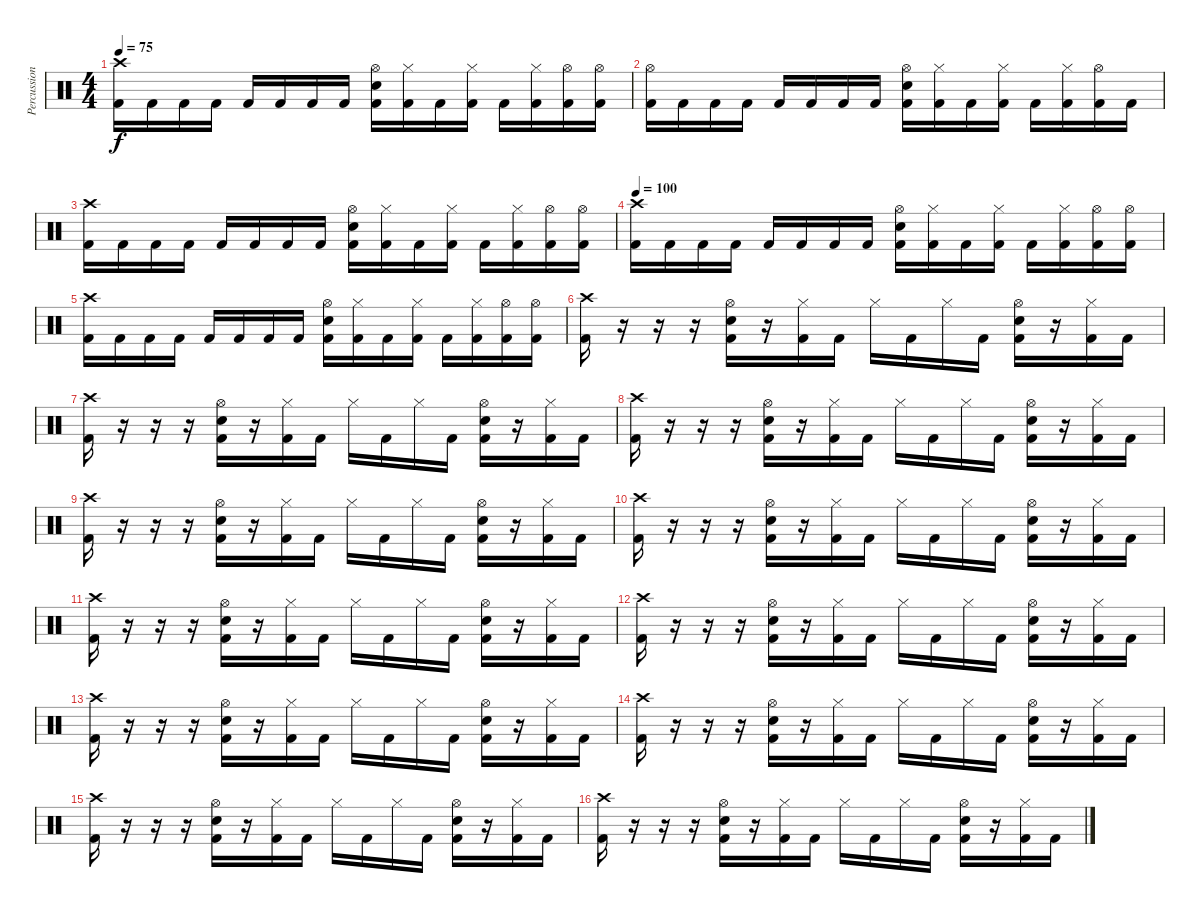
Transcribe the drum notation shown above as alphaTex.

\track ("Percussions" "Percussion") {instrument percussion}
\staff {score}
\articulation defaults
\ts (4 4)
\tempo 75
\clef neutral
\ks c
("Crash high (hit)" "Kick (hit) 2").16{dy f} "Kick (hit) 2".16 "Kick (hit) 2".16 "Kick (hit) 2".16 "Kick (hit) 2".16 "Kick (hit) 2".16 "Kick (hit) 2".16 "Kick (hit) 2".16 ("Hi-Hat (open)" "Kick (hit) 2" "Snare (hit) 2").16 ("Hi-Hat (closed)" "Kick (hit) 2").16 "Kick (hit) 2".16 ("Hi-Hat (closed)" "Kick (hit) 2").16 "Kick (hit) 2".16 ("Hi-Hat (closed)" "Kick (hit) 2").16 ("Hi-Hat (open)" "Kick (hit) 2").16 ("Hi-Hat (open)" "Kick (hit) 2").16 |
("Hi-Hat (open)" "Kick (hit) 2").16 "Kick (hit) 2".16 "Kick (hit) 2".16 "Kick (hit) 2".16 "Kick (hit) 2".16 "Kick (hit) 2".16 "Kick (hit) 2".16 "Kick (hit) 2".16 ("Hi-Hat (open)" "Kick (hit) 2" "Snare (hit) 2").16 ("Hi-Hat (closed)" "Kick (hit) 2").16 "Kick (hit) 2".16 ("Hi-Hat (closed)" "Kick (hit) 2").16 "Kick (hit) 2".16 ("Hi-Hat (closed)" "Kick (hit) 2").16 ("Hi-Hat (open)" "Kick (hit) 2").16 "Kick (hit) 2".16 |
("Crash high (hit)" "Kick (hit) 2").16 "Kick (hit) 2".16 "Kick (hit) 2".16 "Kick (hit) 2".16 "Kick (hit) 2".16 "Kick (hit) 2".16 "Kick (hit) 2".16 "Kick (hit) 2".16 ("Hi-Hat (open)" "Kick (hit) 2" "Snare (hit) 2").16 ("Hi-Hat (closed)" "Kick (hit) 2").16 "Kick (hit) 2".16 ("Hi-Hat (closed)" "Kick (hit) 2").16 "Kick (hit) 2".16 ("Hi-Hat (closed)" "Kick (hit) 2").16 ("Hi-Hat (open)" "Kick (hit) 2").16 ("Hi-Hat (open)" "Kick (hit) 2").16 |
\tempo 100
("Crash high (hit)" "Kick (hit) 2").16 "Kick (hit) 2".16 "Kick (hit) 2".16 "Kick (hit) 2".16 "Kick (hit) 2".16 "Kick (hit) 2".16 "Kick (hit) 2".16 "Kick (hit) 2".16 ("Hi-Hat (open)" "Kick (hit) 2" "Snare (hit) 2").16 ("Hi-Hat (closed)" "Kick (hit) 2").16 "Kick (hit) 2".16 ("Hi-Hat (closed)" "Kick (hit) 2").16 "Kick (hit) 2".16 ("Hi-Hat (closed)" "Kick (hit) 2").16 ("Hi-Hat (open)" "Kick (hit) 2").16 ("Hi-Hat (open)" "Kick (hit) 2").16 |
("Crash high (hit)" "Kick (hit) 2").16 "Kick (hit) 2".16 "Kick (hit) 2".16 "Kick (hit) 2".16 "Kick (hit) 2".16 "Kick (hit) 2".16 "Kick (hit) 2".16 "Kick (hit) 2".16 ("Hi-Hat (open)" "Kick (hit) 2" "Snare (hit) 2").16 ("Hi-Hat (closed)" "Kick (hit) 2").16 "Kick (hit) 2".16 ("Hi-Hat (closed)" "Kick (hit) 2").16 "Kick (hit) 2".16 ("Hi-Hat (closed)" "Kick (hit) 2").16 ("Hi-Hat (open)" "Kick (hit) 2").16 ("Hi-Hat (open)" "Kick (hit) 2").16 |
("Crash high (hit)" "Kick (hit) 2").16 r.16 r.16 r.16 ("Hi-Hat (open)" "Kick (hit) 2" "Snare (hit) 2").16 r.16 ("Hi-Hat (closed)" "Kick (hit) 2").16 "Kick (hit) 2".16 "Hi-Hat (closed)".16 "Kick (hit) 2".16 "Hi-Hat (closed)".16 "Kick (hit) 2".16 ("Hi-Hat (open)" "Kick (hit) 2" "Snare (hit) 2").16 r.16 ("Hi-Hat (closed)" "Kick (hit) 2").16 "Kick (hit) 2".16 |
("Crash high (hit)" "Kick (hit) 2").16 r.16 r.16 r.16 ("Hi-Hat (open)" "Kick (hit) 2" "Snare (hit) 2").16 r.16 ("Hi-Hat (closed)" "Kick (hit) 2").16 "Kick (hit) 2".16 "Hi-Hat (closed)".16 "Kick (hit) 2".16 "Hi-Hat (closed)".16 "Kick (hit) 2".16 ("Hi-Hat (open)" "Kick (hit) 2" "Snare (hit) 2").16 r.16 ("Hi-Hat (closed)" "Kick (hit) 2").16 "Kick (hit) 2".16 |
("Crash high (hit)" "Kick (hit) 2").16 r.16 r.16 r.16 ("Hi-Hat (open)" "Kick (hit) 2" "Snare (hit) 2").16 r.16 ("Hi-Hat (closed)" "Kick (hit) 2").16 "Kick (hit) 2".16 "Hi-Hat (closed)".16 "Kick (hit) 2".16 "Hi-Hat (closed)".16 "Kick (hit) 2".16 ("Hi-Hat (open)" "Kick (hit) 2" "Snare (hit) 2").16 r.16 ("Hi-Hat (closed)" "Kick (hit) 2").16 "Kick (hit) 2".16 |
("Crash high (hit)" "Kick (hit) 2").16 r.16 r.16 r.16 ("Hi-Hat (open)" "Kick (hit) 2" "Snare (hit) 2").16 r.16 ("Hi-Hat (closed)" "Kick (hit) 2").16 "Kick (hit) 2".16 "Hi-Hat (closed)".16 "Kick (hit) 2".16 "Hi-Hat (closed)".16 "Kick (hit) 2".16 ("Hi-Hat (open)" "Kick (hit) 2" "Snare (hit) 2").16 r.16 ("Hi-Hat (closed)" "Kick (hit) 2").16 "Kick (hit) 2".16 |
("Crash high (hit)" "Kick (hit) 2").16 r.16 r.16 r.16 ("Hi-Hat (open)" "Kick (hit) 2" "Snare (hit) 2").16 r.16 ("Hi-Hat (closed)" "Kick (hit) 2").16 "Kick (hit) 2".16 "Hi-Hat (closed)".16 "Kick (hit) 2".16 "Hi-Hat (closed)".16 "Kick (hit) 2".16 ("Hi-Hat (open)" "Kick (hit) 2" "Snare (hit) 2").16 r.16 ("Hi-Hat (closed)" "Kick (hit) 2").16 "Kick (hit) 2".16 |
("Crash high (hit)" "Kick (hit) 2").16 r.16 r.16 r.16 ("Hi-Hat (open)" "Kick (hit) 2" "Snare (hit) 2").16 r.16 ("Hi-Hat (closed)" "Kick (hit) 2").16 "Kick (hit) 2".16 "Hi-Hat (closed)".16 "Kick (hit) 2".16 "Hi-Hat (closed)".16 "Kick (hit) 2".16 ("Hi-Hat (open)" "Kick (hit) 2" "Snare (hit) 2").16 r.16 ("Hi-Hat (closed)" "Kick (hit) 2").16 "Kick (hit) 2".16 |
("Crash high (hit)" "Kick (hit) 2").16 r.16 r.16 r.16 ("Hi-Hat (open)" "Kick (hit) 2" "Snare (hit) 2").16 r.16 ("Hi-Hat (closed)" "Kick (hit) 2").16 "Kick (hit) 2".16 "Hi-Hat (closed)".16 "Kick (hit) 2".16 "Hi-Hat (closed)".16 "Kick (hit) 2".16 ("Hi-Hat (open)" "Kick (hit) 2" "Snare (hit) 2").16 r.16 ("Hi-Hat (closed)" "Kick (hit) 2").16 "Kick (hit) 2".16 |
("Crash high (hit)" "Kick (hit) 2").16 r.16 r.16 r.16 ("Hi-Hat (open)" "Kick (hit) 2" "Snare (hit) 2").16 r.16 ("Hi-Hat (closed)" "Kick (hit) 2").16 "Kick (hit) 2".16 "Hi-Hat (closed)".16 "Kick (hit) 2".16 "Hi-Hat (closed)".16 "Kick (hit) 2".16 ("Hi-Hat (open)" "Kick (hit) 2" "Snare (hit) 2").16 r.16 ("Hi-Hat (closed)" "Kick (hit) 2").16 "Kick (hit) 2".16 |
("Crash high (hit)" "Kick (hit) 2").16 r.16 r.16 r.16 ("Hi-Hat (open)" "Kick (hit) 2" "Snare (hit) 2").16 r.16 ("Hi-Hat (closed)" "Kick (hit) 2").16 "Kick (hit) 2".16 "Hi-Hat (closed)".16 "Kick (hit) 2".16 "Hi-Hat (closed)".16 "Kick (hit) 2".16 ("Hi-Hat (open)" "Kick (hit) 2" "Snare (hit) 2").16 r.16 ("Hi-Hat (closed)" "Kick (hit) 2").16 "Kick (hit) 2".16 |
("Crash high (hit)" "Kick (hit) 2").16 r.16 r.16 r.16 ("Hi-Hat (open)" "Kick (hit) 2" "Snare (hit) 2").16 r.16 ("Hi-Hat (closed)" "Kick (hit) 2").16 "Kick (hit) 2".16 "Hi-Hat (closed)".16 "Kick (hit) 2".16 "Hi-Hat (closed)".16 "Kick (hit) 2".16 ("Hi-Hat (open)" "Kick (hit) 2" "Snare (hit) 2").16 r.16 ("Hi-Hat (closed)" "Kick (hit) 2").16 "Kick (hit) 2".16 |
("Crash high (hit)" "Kick (hit) 2").16 r.16 r.16 r.16 ("Hi-Hat (open)" "Kick (hit) 2" "Snare (hit) 2").16 r.16 ("Hi-Hat (closed)" "Kick (hit) 2").16 "Kick (hit) 2".16 "Hi-Hat (closed)".16 "Kick (hit) 2".16 "Hi-Hat (closed)".16 "Kick (hit) 2".16 ("Hi-Hat (open)" "Kick (hit) 2" "Snare (hit) 2").16 r.16 ("Hi-Hat (closed)" "Kick (hit) 2").16 "Kick (hit) 2".16
